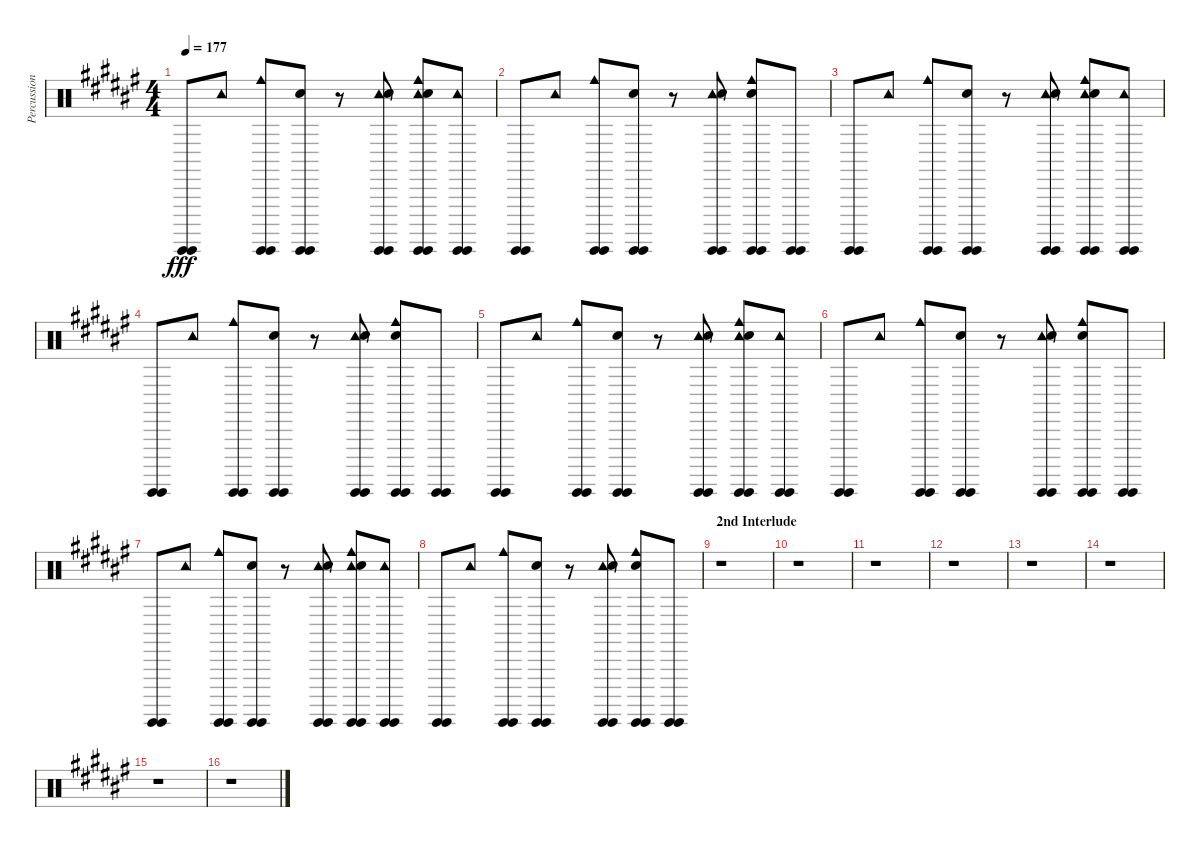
\track ("Percussion" "Percussion") {instrument percussion}
\staff {score}
\articulation defaults
\ts (4 4)
\tempo 177
\clef neutral
\ks d#minor
("Guiro (hit)" "Guiro (hit)").8{dy fff} "Tambourine (hit)".8 ("Cowbell medium (hit)" "Guiro (hit)" "Guiro (hit)").8 ("Guiro (hit)" "Guiro (hit)" "Hand Clap (hit)").8 r.8 ("Tambourine (hit)" "Guiro (hit)" "Guiro (hit)" "Hand Clap (hit)").8 ("Cowbell medium (hit)" "Tambourine (hit)" "Guiro (hit)" "Guiro (hit)" "Hand Clap (hit)").8 ("Tambourine (hit)" "Guiro (hit)" "Guiro (hit)").8 |
("Guiro (hit)" "Guiro (hit)").8 "Tambourine (hit)".8 ("Cowbell medium (hit)" "Guiro (hit)" "Guiro (hit)").8 ("Guiro (hit)" "Guiro (hit)" "Hand Clap (hit)").8 r.8 ("Tambourine (hit)" "Guiro (hit)" "Guiro (hit)" "Hand Clap (hit)").8 ("Cowbell medium (hit)" "Guiro (hit)" "Guiro (hit)" "Hand Clap (hit)").8 ("Guiro (hit)" "Guiro (hit)").8 |
("Guiro (hit)" "Guiro (hit)").8 "Tambourine (hit)".8 ("Cowbell medium (hit)" "Guiro (hit)" "Guiro (hit)").8 ("Guiro (hit)" "Guiro (hit)" "Hand Clap (hit)").8 r.8 ("Tambourine (hit)" "Guiro (hit)" "Guiro (hit)" "Hand Clap (hit)").8 ("Cowbell medium (hit)" "Tambourine (hit)" "Guiro (hit)" "Guiro (hit)" "Hand Clap (hit)").8 ("Tambourine (hit)" "Guiro (hit)" "Guiro (hit)").8 |
("Guiro (hit)" "Guiro (hit)").8 "Tambourine (hit)".8 ("Cowbell medium (hit)" "Guiro (hit)" "Guiro (hit)").8 ("Guiro (hit)" "Guiro (hit)" "Hand Clap (hit)").8 r.8 ("Tambourine (hit)" "Guiro (hit)" "Guiro (hit)" "Hand Clap (hit)").8 ("Cowbell medium (hit)" "Guiro (hit)" "Guiro (hit)" "Hand Clap (hit)").8 ("Guiro (hit)" "Guiro (hit)").8 |
("Guiro (hit)" "Guiro (hit)").8 "Tambourine (hit)".8 ("Cowbell medium (hit)" "Guiro (hit)" "Guiro (hit)").8 ("Guiro (hit)" "Guiro (hit)" "Hand Clap (hit)").8 r.8 ("Tambourine (hit)" "Guiro (hit)" "Guiro (hit)" "Hand Clap (hit)").8 ("Cowbell medium (hit)" "Tambourine (hit)" "Guiro (hit)" "Guiro (hit)" "Hand Clap (hit)").8 ("Tambourine (hit)" "Guiro (hit)" "Guiro (hit)").8 |
("Guiro (hit)" "Guiro (hit)").8 "Tambourine (hit)".8 ("Cowbell medium (hit)" "Guiro (hit)" "Guiro (hit)").8 ("Guiro (hit)" "Guiro (hit)" "Hand Clap (hit)").8 r.8 ("Tambourine (hit)" "Guiro (hit)" "Guiro (hit)" "Hand Clap (hit)").8 ("Cowbell medium (hit)" "Guiro (hit)" "Guiro (hit)" "Hand Clap (hit)").8 ("Guiro (hit)" "Guiro (hit)").8 |
("Guiro (hit)" "Guiro (hit)").8 "Tambourine (hit)".8 ("Cowbell medium (hit)" "Guiro (hit)" "Guiro (hit)").8 ("Guiro (hit)" "Guiro (hit)" "Hand Clap (hit)").8 r.8 ("Tambourine (hit)" "Guiro (hit)" "Guiro (hit)" "Hand Clap (hit)").8 ("Cowbell medium (hit)" "Tambourine (hit)" "Guiro (hit)" "Guiro (hit)" "Hand Clap (hit)").8 ("Tambourine (hit)" "Guiro (hit)" "Guiro (hit)").8 |
("Guiro (hit)" "Guiro (hit)").8 "Tambourine (hit)".8 ("Cowbell medium (hit)" "Guiro (hit)" "Guiro (hit)").8 ("Guiro (hit)" "Guiro (hit)" "Hand Clap (hit)").8 r.8 ("Tambourine (hit)" "Guiro (hit)" "Guiro (hit)" "Hand Clap (hit)").8 ("Cowbell medium (hit)" "Guiro (hit)" "Guiro (hit)" "Hand Clap (hit)").8 ("Guiro (hit)" "Guiro (hit)").8 |
\section ("" "2nd Interlude")
r.1 |
r.1 |
r.1 |
r.1 |
r.1 |
r.1 |
r.1 |
r.1
